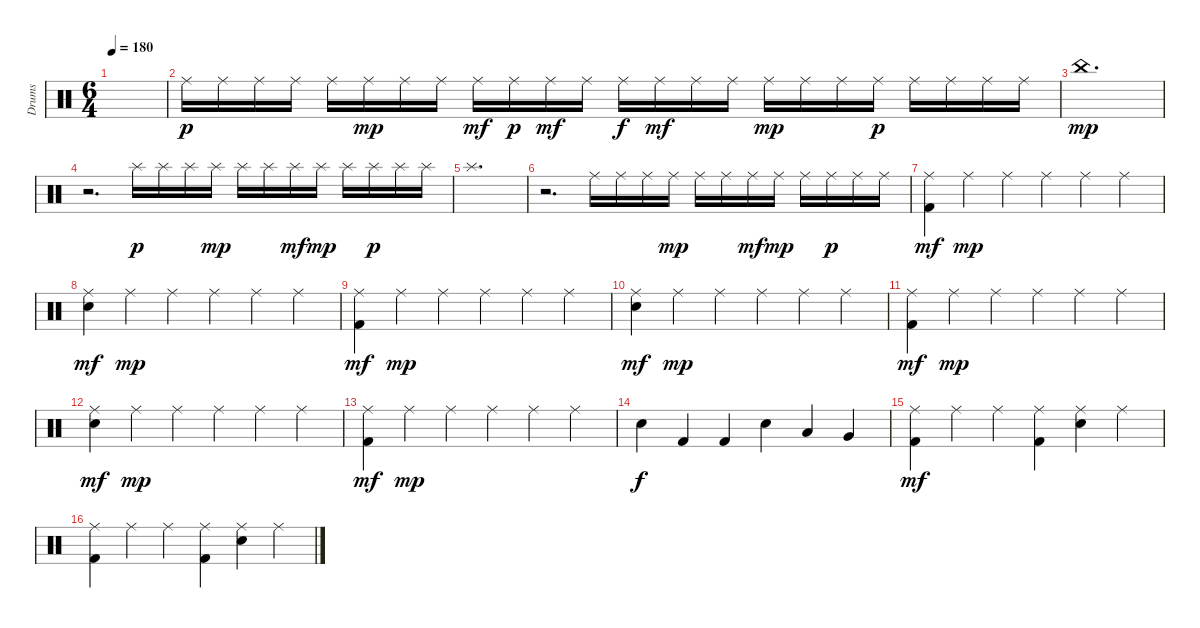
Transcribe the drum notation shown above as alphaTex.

\track ("Drums" "Drums") {instrument percussion}
\staff {score}
\articulation defaults
\ts (6 4)
\tempo 180
\clef neutral
\ks c
|
"Ride (middle)".16{dy p} "Ride (middle)".16 "Ride (middle)".16 "Ride (middle)".16 "Ride (middle)".16 "Ride (middle)".16{dy mp} "Ride (middle)".16 "Ride (middle)".16 "Ride (middle)".16{dy mf} "Ride (middle)".16{dy p} "Ride (middle)".16{dy mf} "Ride (middle)".16 "Ride (middle)".16{dy f} "Ride (middle)".16{dy mf} "Ride (middle)".16 "Ride (middle)".16 "Ride (middle)".16{dy mp} "Ride (middle)".16 "Ride (middle)".16 "Ride (middle)".16{dy p} "Ride (middle)".16 "Ride (middle)".16 "Ride (middle)".16 "Ride (middle)".16 |
"China (hit)".1{d dy mp} |
r.2{d} "Splash (hit)".16{dy p} "Splash (hit)".16 "Splash (hit)".16 "Splash (hit)".16{dy mp} "Splash (hit)".16 "Splash (hit)".16 "Splash (hit)".16{dy mf} "Splash (hit)".16{dy mp} "Splash (hit)".16 "Splash (hit)".16{dy p} "Splash (hit)".16 "Splash (hit)".16 |
"Splash (hit)".1{d} |
r.2{d} "Ride (middle)".16 "Ride (middle)".16 "Ride (middle)".16 "Ride (middle)".16{dy mp} "Ride (middle)".16 "Ride (middle)".16 "Ride (middle)".16{dy mf} "Ride (middle)".16{dy mp} "Ride (middle)".16 "Ride (middle)".16{dy p} "Ride (middle)".16 "Ride (middle)".16 |
("Ride (middle)" "Kick (hit) 2").4{dy mf} "Ride (middle)".4{dy mp} "Ride (middle)".4 "Ride (middle)".4 "Ride (middle)".4 "Ride (middle)".4 |
("Ride (middle)" "Snare (hit) 2").4{dy mf} "Ride (middle)".4{dy mp} "Ride (middle)".4 "Ride (middle)".4 "Ride (middle)".4 "Ride (middle)".4 |
("Ride (middle)" "Kick (hit) 2").4{dy mf} "Ride (middle)".4{dy mp} "Ride (middle)".4 "Ride (middle)".4 "Ride (middle)".4 "Ride (middle)".4 |
("Ride (middle)" "Snare (hit) 2").4{dy mf} "Ride (middle)".4{dy mp} "Ride (middle)".4 "Ride (middle)".4 "Ride (middle)".4 "Ride (middle)".4 |
("Ride (middle)" "Kick (hit) 2").4{dy mf} "Ride (middle)".4{dy mp} "Ride (middle)".4 "Ride (middle)".4 "Ride (middle)".4 "Ride (middle)".4 |
("Ride (middle)" "Snare (hit) 2").4{dy mf} "Ride (middle)".4{dy mp} "Ride (middle)".4 "Ride (middle)".4 "Ride (middle)".4 "Ride (middle)".4 |
("Ride (middle)" "Kick (hit) 2").4{dy mf} "Ride (middle)".4{dy mp} "Ride (middle)".4 "Ride (middle)".4 "Ride (middle)".4 "Ride (middle)".4 |
"Snare (hit) 2".4{dy f} "Kick (hit) 2".4 "Kick (hit) 2".4 "Snare (hit) 2".4 "Low Tom (hit)".4 "Very Low Tom (hit)".4 |
("Ride (middle)" "Kick (hit) 2").4{dy mf} "Ride (middle)".4 "Ride (middle)".4 ("Ride (middle)" "Kick (hit) 2").4 ("Ride (middle)" "Snare (hit) 2").4 "Ride (middle)".4 |
("Ride (middle)" "Kick (hit) 2").4 "Ride (middle)".4 "Ride (middle)".4 ("Ride (middle)" "Kick (hit) 2").4 ("Ride (middle)" "Snare (hit) 2").4 "Ride (middle)".4
